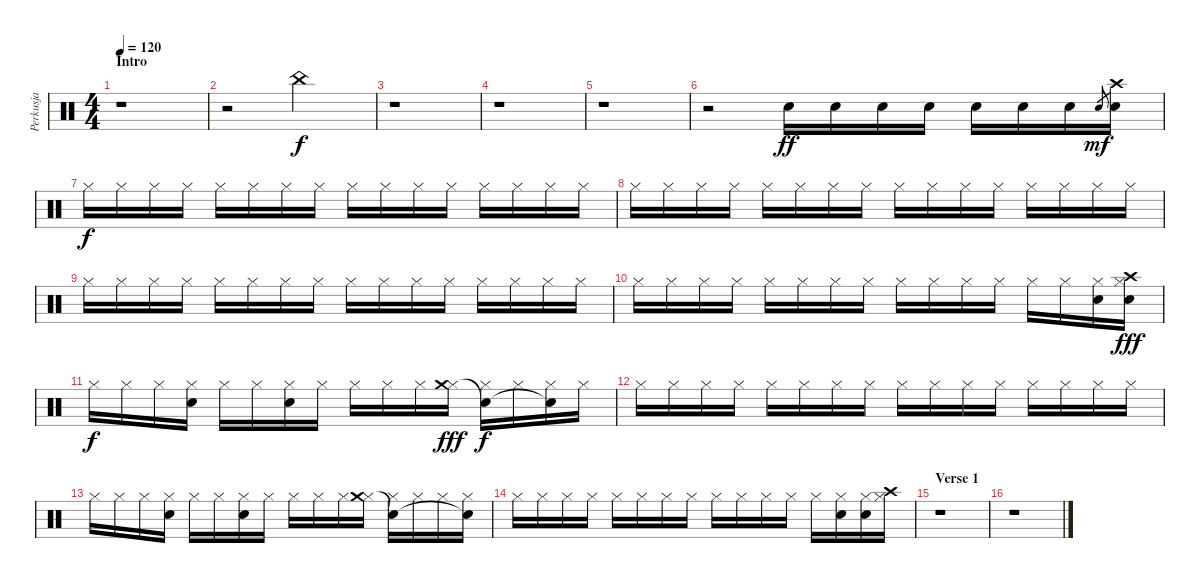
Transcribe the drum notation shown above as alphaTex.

\track ("Perkusja" "Perkusja") {instrument percussion}
\staff {score}
\articulation defaults
\ts (4 4)
\section ("" "Intro")
\tempo 120
\clef neutral
\ks c
r.1{dy f} |
r.2 "China (hit)".2 |
r.1 |
r.1 |
r.1 |
r.2 "Snare (hit) 2".16{dy ff} "Snare (hit) 2".16 "Snare (hit) 2".16 "Snare (hit) 2".16 "Snare (hit) 2".16 "Snare (hit) 2".16 "Snare (hit) 2".16 "Snare (hit) 2".8{gr dy mf} ("Electric Snare (hit)" "Crash high (hit)").16 |
"Hi-Hat (closed)".16{dy f} "Hi-Hat (closed)".16 "Hi-Hat (closed)".16 "Hi-Hat (closed)".16 "Hi-Hat (closed)".16 "Hi-Hat (closed)".16 "Hi-Hat (closed)".16 "Hi-Hat (closed)".16 "Hi-Hat (closed)".16 "Hi-Hat (closed)".16 "Hi-Hat (closed)".16 "Hi-Hat (closed)".16 "Hi-Hat (closed)".16 "Hi-Hat (closed)".16 "Hi-Hat (closed)".16 "Hi-Hat (closed)".16 |
"Hi-Hat (closed)".16 "Hi-Hat (closed)".16 "Hi-Hat (closed)".16 "Hi-Hat (closed)".16 "Hi-Hat (closed)".16 "Hi-Hat (closed)".16 "Hi-Hat (closed)".16 "Hi-Hat (closed)".16 "Hi-Hat (closed)".16 "Hi-Hat (closed)".16 "Hi-Hat (closed)".16 "Hi-Hat (closed)".16 "Hi-Hat (closed)".16 "Hi-Hat (closed)".16 "Hi-Hat (closed)".16 "Hi-Hat (closed)".16 |
"Hi-Hat (closed)".16 "Hi-Hat (closed)".16 "Hi-Hat (closed)".16 "Hi-Hat (closed)".16 "Hi-Hat (closed)".16 "Hi-Hat (closed)".16 "Hi-Hat (closed)".16 "Hi-Hat (closed)".16 "Hi-Hat (closed)".16 "Hi-Hat (closed)".16 "Hi-Hat (closed)".16 "Hi-Hat (closed)".16 "Hi-Hat (closed)".16 "Hi-Hat (closed)".16 "Hi-Hat (closed)".16 "Hi-Hat (closed)".16 |
"Hi-Hat (closed)".16 "Hi-Hat (closed)".16 "Hi-Hat (closed)".16 "Hi-Hat (closed)".16 "Hi-Hat (closed)".16 "Hi-Hat (closed)".16 "Hi-Hat (closed)".16 "Hi-Hat (closed)".16 "Hi-Hat (closed)".16 "Hi-Hat (closed)".16 "Hi-Hat (closed)".16 "Hi-Hat (closed)".16 "Hi-Hat (closed)".16 "Hi-Hat (closed)".16 ("Hi-Hat (closed)" "Electric Snare (hit)").16 ("Hi-Hat (closed)" "Snare (hit) 2" "Crash high (hit)").16{dy fff} |
"Hi-Hat (closed)".16{dy f} "Hi-Hat (closed)".16 "Hi-Hat (closed)".16 ("Hi-Hat (closed)" "Snare (hit) 2").16 "Hi-Hat (closed)".16 "Hi-Hat (closed)".16 ("Hi-Hat (closed)" "Snare (hit) 2").16 "Hi-Hat (closed)".16 "Hi-Hat (closed)".16 "Hi-Hat (closed)".16 "Hi-Hat (closed)".16 ("Hi-Hat (closed)" "Crash medium (hit)").16{dy fff} ("Hi-Hat (closed)" "Snare (hit)"{t}).16{dy f} "Hi-Hat (closed)".16 ("Hi-Hat (closed)" "Snare (hit)"{t}).16 "Hi-Hat (closed)".16 |
"Hi-Hat (closed)".16 "Hi-Hat (closed)".16 "Hi-Hat (closed)".16 "Hi-Hat (closed)".16 "Hi-Hat (closed)".16 "Hi-Hat (closed)".16 "Hi-Hat (closed)".16 "Hi-Hat (closed)".16 "Hi-Hat (closed)".16 "Hi-Hat (closed)".16 "Hi-Hat (closed)".16 "Hi-Hat (closed)".16 "Hi-Hat (closed)".16 "Hi-Hat (closed)".16 "Hi-Hat (closed)".16 "Hi-Hat (closed)".16 |
"Hi-Hat (closed)".16 "Hi-Hat (closed)".16 "Hi-Hat (closed)".16 ("Hi-Hat (closed)" "Snare (hit) 2").16 "Hi-Hat (closed)".16 "Hi-Hat (closed)".16 ("Hi-Hat (closed)" "Snare (hit) 2").16 "Hi-Hat (closed)".16 "Hi-Hat (closed)".16 "Hi-Hat (closed)".16 "Hi-Hat (closed)".16 ("Hi-Hat (closed)" "Crash medium (hit)").16 ("Hi-Hat (closed)" "Snare (hit)"{t}).16 "Hi-Hat (closed)".16 "Hi-Hat (closed)".16 ("Hi-Hat (closed)" "Snare (hit)"{t}).16 |
"Hi-Hat (closed)".16 "Hi-Hat (closed)".16 "Hi-Hat (closed)".16 "Hi-Hat (closed)".16 "Hi-Hat (closed)".16 "Hi-Hat (closed)".16 "Hi-Hat (closed)".16 "Hi-Hat (closed)".16 "Hi-Hat (closed)".16 "Hi-Hat (closed)".16 "Hi-Hat (closed)".16 "Hi-Hat (closed)".16 "Hi-Hat (closed)".16 ("Hi-Hat (closed)" "Snare (hit) 2").16 ("Hi-Hat (closed)" "Electric Snare (hit)").16 ("Hi-Hat (closed)" "Crash high (hit)").16 |
\section ("" "Verse 1")
r.1 |
r.1
